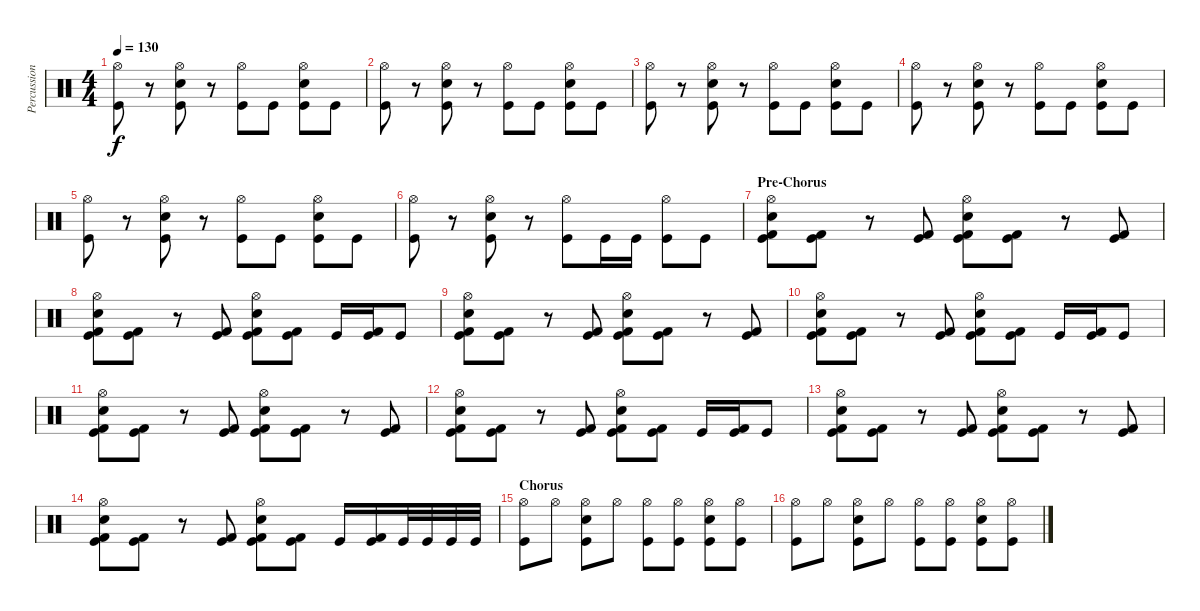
\track ("Percussion" "Percussion") {instrument percussion}
\staff {score}
\articulation defaults
\ts (4 4)
\tempo 130
\clef neutral
\ks c
("Hi-Hat (open)" "Kick (hit)").8{dy f volume 16} r.8{volume 14} ("Hi-Hat (open)" "Kick (hit)" "Snare (hit) 2").8 r.8 ("Hi-Hat (open)" "Kick (hit)").8{volume 16} "Kick (hit)".8{volume 14} ("Hi-Hat (open)" "Kick (hit)" "Snare (hit) 2").8 "Kick (hit)".8 |
("Hi-Hat (open)" "Kick (hit)").8{volume 16} r.8{volume 14} ("Hi-Hat (open)" "Kick (hit)" "Snare (hit) 2").8 r.8 ("Hi-Hat (open)" "Kick (hit)").8{volume 16} "Kick (hit)".8{volume 14} ("Hi-Hat (open)" "Kick (hit)" "Snare (hit) 2").8 "Kick (hit)".8 |
("Hi-Hat (open)" "Kick (hit)").8{volume 16} r.8{volume 14} ("Hi-Hat (open)" "Kick (hit)" "Snare (hit) 2").8 r.8 ("Hi-Hat (open)" "Kick (hit)").8{volume 16} "Kick (hit)".8{volume 14} ("Hi-Hat (open)" "Kick (hit)" "Snare (hit) 2").8 "Kick (hit)".8 |
("Hi-Hat (open)" "Kick (hit)").8{volume 16} r.8{volume 14} ("Hi-Hat (open)" "Kick (hit)" "Snare (hit) 2").8 r.8 ("Hi-Hat (open)" "Kick (hit)").8{volume 16} "Kick (hit)".8{volume 14} ("Hi-Hat (open)" "Kick (hit)" "Snare (hit) 2").8 "Kick (hit)".8 |
("Hi-Hat (open)" "Kick (hit)").8{volume 16} r.8{volume 14} ("Hi-Hat (open)" "Kick (hit)" "Snare (hit) 2").8 r.8 ("Hi-Hat (open)" "Kick (hit)").8{volume 16} "Kick (hit)".8{volume 14} ("Hi-Hat (open)" "Kick (hit)" "Snare (hit) 2").8 "Kick (hit)".8 |
("Hi-Hat (open)" "Kick (hit)").8{volume 16} r.8{volume 14} ("Hi-Hat (open)" "Kick (hit)" "Snare (hit) 2").8 r.8 ("Hi-Hat (open)" "Kick (hit)").8{volume 16} "Kick (hit)".16{volume 16} "Kick (hit)".16 ("Hi-Hat (open)" "Kick (hit)").8 "Kick (hit)".8 |
\section ("" "Pre-Chorus")
("Kick (hit) 2" "Kick (hit)" "Snare (hit) 2" "Hi-Hat (open)").8 ("Kick (hit) 2" "Kick (hit)").8 r.8 ("Kick (hit) 2" "Kick (hit)").8 ("Kick (hit) 2" "Kick (hit)" "Snare (hit) 2" "Hi-Hat (open)").8 ("Kick (hit) 2" "Kick (hit)").8 r.8 ("Kick (hit) 2" "Kick (hit)").8 |
("Kick (hit) 2" "Kick (hit)" "Snare (hit) 2" "Hi-Hat (open)").8 ("Kick (hit) 2" "Kick (hit)").8 r.8 ("Kick (hit) 2" "Kick (hit)").8 ("Kick (hit) 2" "Kick (hit)" "Snare (hit) 2" "Hi-Hat (open)").8 ("Kick (hit) 2" "Kick (hit)").8 "Kick (hit)".16 ("Kick (hit) 2" "Kick (hit)").16 "Kick (hit)".8 |
("Kick (hit) 2" "Kick (hit)" "Snare (hit) 2" "Hi-Hat (open)").8 ("Kick (hit) 2" "Kick (hit)").8 r.8 ("Kick (hit) 2" "Kick (hit)").8 ("Kick (hit) 2" "Kick (hit)" "Snare (hit) 2" "Hi-Hat (open)").8 ("Kick (hit) 2" "Kick (hit)").8 r.8 ("Kick (hit) 2" "Kick (hit)").8 |
("Kick (hit) 2" "Kick (hit)" "Snare (hit) 2" "Hi-Hat (open)").8 ("Kick (hit) 2" "Kick (hit)").8 r.8 ("Kick (hit) 2" "Kick (hit)").8 ("Kick (hit) 2" "Kick (hit)" "Snare (hit) 2" "Hi-Hat (open)").8 ("Kick (hit) 2" "Kick (hit)").8 "Kick (hit)".16 ("Kick (hit) 2" "Kick (hit)").16 "Kick (hit)".8 |
("Kick (hit) 2" "Kick (hit)" "Snare (hit) 2" "Hi-Hat (open)").8 ("Kick (hit) 2" "Kick (hit)").8 r.8 ("Kick (hit) 2" "Kick (hit)").8 ("Kick (hit) 2" "Kick (hit)" "Snare (hit) 2" "Hi-Hat (open)").8 ("Kick (hit) 2" "Kick (hit)").8 r.8 ("Kick (hit) 2" "Kick (hit)").8 |
("Kick (hit) 2" "Kick (hit)" "Snare (hit) 2" "Hi-Hat (open)").8 ("Kick (hit) 2" "Kick (hit)").8 r.8 ("Kick (hit) 2" "Kick (hit)").8 ("Kick (hit) 2" "Kick (hit)" "Snare (hit) 2" "Hi-Hat (open)").8 ("Kick (hit) 2" "Kick (hit)").8 "Kick (hit)".16 ("Kick (hit) 2" "Kick (hit)").16 "Kick (hit)".8 |
("Kick (hit) 2" "Kick (hit)" "Snare (hit) 2" "Hi-Hat (open)").8 ("Kick (hit) 2" "Kick (hit)").8 r.8 ("Kick (hit) 2" "Kick (hit)").8 ("Kick (hit) 2" "Kick (hit)" "Snare (hit) 2" "Hi-Hat (open)").8 ("Kick (hit) 2" "Kick (hit)").8 r.8 ("Kick (hit) 2" "Kick (hit)").8 |
("Kick (hit) 2" "Kick (hit)" "Snare (hit) 2" "Hi-Hat (open)").8 ("Kick (hit) 2" "Kick (hit)").8 r.8 ("Kick (hit) 2" "Kick (hit)").8 ("Kick (hit) 2" "Kick (hit)" "Snare (hit) 2" "Hi-Hat (open)").8 ("Kick (hit) 2" "Kick (hit)").8 "Kick (hit)".16 ("Kick (hit) 2" "Kick (hit)").16 "Kick (hit)".32 "Kick (hit)".32 "Kick (hit)".32 "Kick (hit)".32 |
\section ("" "Chorus")
("Hi-Hat (open)" "Kick (hit)").8{volume 16} "Hi-Hat (open)".8{volume 14} ("Hi-Hat (open)" "Kick (hit)" "Snare (hit) 2").8 "Hi-Hat (open)".8 ("Hi-Hat (open)" "Kick (hit)").8{volume 16} ("Hi-Hat (open)" "Kick (hit)").8{volume 14} ("Hi-Hat (open)" "Kick (hit)" "Snare (hit) 2").8 ("Hi-Hat (open)" "Kick (hit)").8 |
("Hi-Hat (open)" "Kick (hit)").8{volume 16} "Hi-Hat (open)".8{volume 14} ("Hi-Hat (open)" "Kick (hit)" "Snare (hit) 2").8 "Hi-Hat (open)".8 ("Hi-Hat (open)" "Kick (hit)").8{volume 16} ("Hi-Hat (open)" "Kick (hit)").8{volume 14} ("Hi-Hat (open)" "Kick (hit)" "Snare (hit) 2").8 ("Hi-Hat (open)" "Kick (hit)").8
